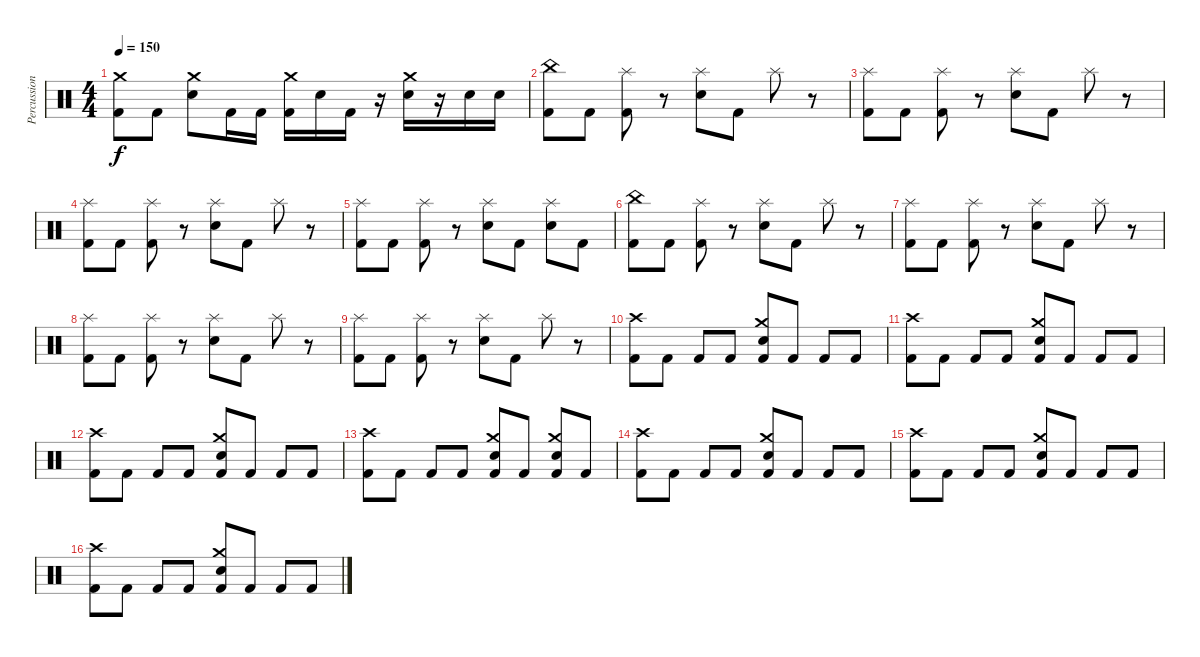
\track ("Percussion" "Percussion") {instrument percussion}
\staff {score}
\articulation defaults
\ts (4 4)
\tempo 150
\clef neutral
\ks c
("Kick (hit) 2" "Crash medium (hit)").8{dy f} "Kick (hit) 2".8 ("Electric Snare (hit)" "Crash medium (hit)").8 "Kick (hit) 2".16 "Kick (hit) 2".16 ("Kick (hit) 2" "Crash medium (hit)").16 "Electric Snare (hit)".16 "Kick (hit) 2".16 r.16 ("Electric Snare (hit)" "Crash medium (hit)").16 r.16 "Electric Snare (hit)".16 "Electric Snare (hit)".16 |
("China (hit)" "Kick (hit) 2").8 "Kick (hit) 2".8 ("Splash (hit)" "Kick (hit) 2").8 r.8 ("Splash (hit)" "Electric Snare (hit)").8 "Kick (hit) 2".8 "Splash (hit)".8 r.8 |
("Splash (hit)" "Kick (hit) 2").8 "Kick (hit) 2".8 ("Splash (hit)" "Kick (hit) 2").8 r.8 ("Splash (hit)" "Electric Snare (hit)").8 "Kick (hit) 2".8 "Splash (hit)".8 r.8 |
("Splash (hit)" "Kick (hit) 2").8 "Kick (hit) 2".8 ("Splash (hit)" "Kick (hit) 2").8 r.8 ("Splash (hit)" "Electric Snare (hit)").8 "Kick (hit) 2".8 "Splash (hit)".8 r.8 |
("Splash (hit)" "Kick (hit) 2").8 "Kick (hit) 2".8 ("Splash (hit)" "Kick (hit) 2").8 r.8 ("Splash (hit)" "Electric Snare (hit)").8 "Kick (hit) 2".8 ("Splash (hit)" "Electric Snare (hit)").8 "Kick (hit) 2".8 |
("China (hit)" "Kick (hit) 2").8 "Kick (hit) 2".8 ("Splash (hit)" "Kick (hit) 2").8 r.8 ("Splash (hit)" "Electric Snare (hit)").8 "Kick (hit) 2".8 "Splash (hit)".8 r.8 |
("Splash (hit)" "Kick (hit) 2").8 "Kick (hit) 2".8 ("Splash (hit)" "Kick (hit) 2").8 r.8 ("Splash (hit)" "Electric Snare (hit)").8 "Kick (hit) 2".8 "Splash (hit)".8 r.8 |
("Splash (hit)" "Kick (hit) 2").8 "Kick (hit) 2".8 ("Splash (hit)" "Kick (hit) 2").8 r.8 ("Splash (hit)" "Electric Snare (hit)").8 "Kick (hit) 2".8 "Splash (hit)".8 r.8 |
("Splash (hit)" "Kick (hit) 2").8 "Kick (hit) 2".8 ("Splash (hit)" "Kick (hit) 2").8 r.8 ("Splash (hit)" "Electric Snare (hit)").8 "Kick (hit) 2".8 "Splash (hit)".8 r.8 |
("Kick (hit) 2" "Crash high (hit)").8 "Kick (hit) 2".8 "Kick (hit) 2".8 "Kick (hit) 2".8 ("Electric Snare (hit)" "Kick (hit) 2" "Crash medium (hit)").8 "Kick (hit) 2".8 "Kick (hit) 2".8 "Kick (hit) 2".8 |
("Kick (hit) 2" "Crash high (hit)").8 "Kick (hit) 2".8 "Kick (hit) 2".8 "Kick (hit) 2".8 ("Electric Snare (hit)" "Kick (hit) 2" "Crash medium (hit)").8 "Kick (hit) 2".8 "Kick (hit) 2".8 "Kick (hit) 2".8 |
("Kick (hit) 2" "Crash high (hit)").8 "Kick (hit) 2".8 "Kick (hit) 2".8 "Kick (hit) 2".8 ("Electric Snare (hit)" "Kick (hit) 2" "Crash medium (hit)").8 "Kick (hit) 2".8 "Kick (hit) 2".8 "Kick (hit) 2".8 |
("Kick (hit) 2" "Crash high (hit)").8 "Kick (hit) 2".8 "Kick (hit) 2".8 "Kick (hit) 2".8 ("Electric Snare (hit)" "Kick (hit) 2" "Crash medium (hit)").8 "Kick (hit) 2".8 ("Kick (hit) 2" "Electric Snare (hit)" "Crash medium (hit)").8 "Kick (hit) 2".8 |
("Kick (hit) 2" "Crash high (hit)").8 "Kick (hit) 2".8 "Kick (hit) 2".8 "Kick (hit) 2".8 ("Electric Snare (hit)" "Kick (hit) 2" "Crash medium (hit)").8 "Kick (hit) 2".8 "Kick (hit) 2".8 "Kick (hit) 2".8 |
("Kick (hit) 2" "Crash high (hit)").8 "Kick (hit) 2".8 "Kick (hit) 2".8 "Kick (hit) 2".8 ("Electric Snare (hit)" "Kick (hit) 2" "Crash medium (hit)").8 "Kick (hit) 2".8 "Kick (hit) 2".8 "Kick (hit) 2".8 |
("Kick (hit) 2" "Crash high (hit)").8 "Kick (hit) 2".8 "Kick (hit) 2".8 "Kick (hit) 2".8 ("Electric Snare (hit)" "Kick (hit) 2" "Crash medium (hit)").8 "Kick (hit) 2".8 "Kick (hit) 2".8 "Kick (hit) 2".8
